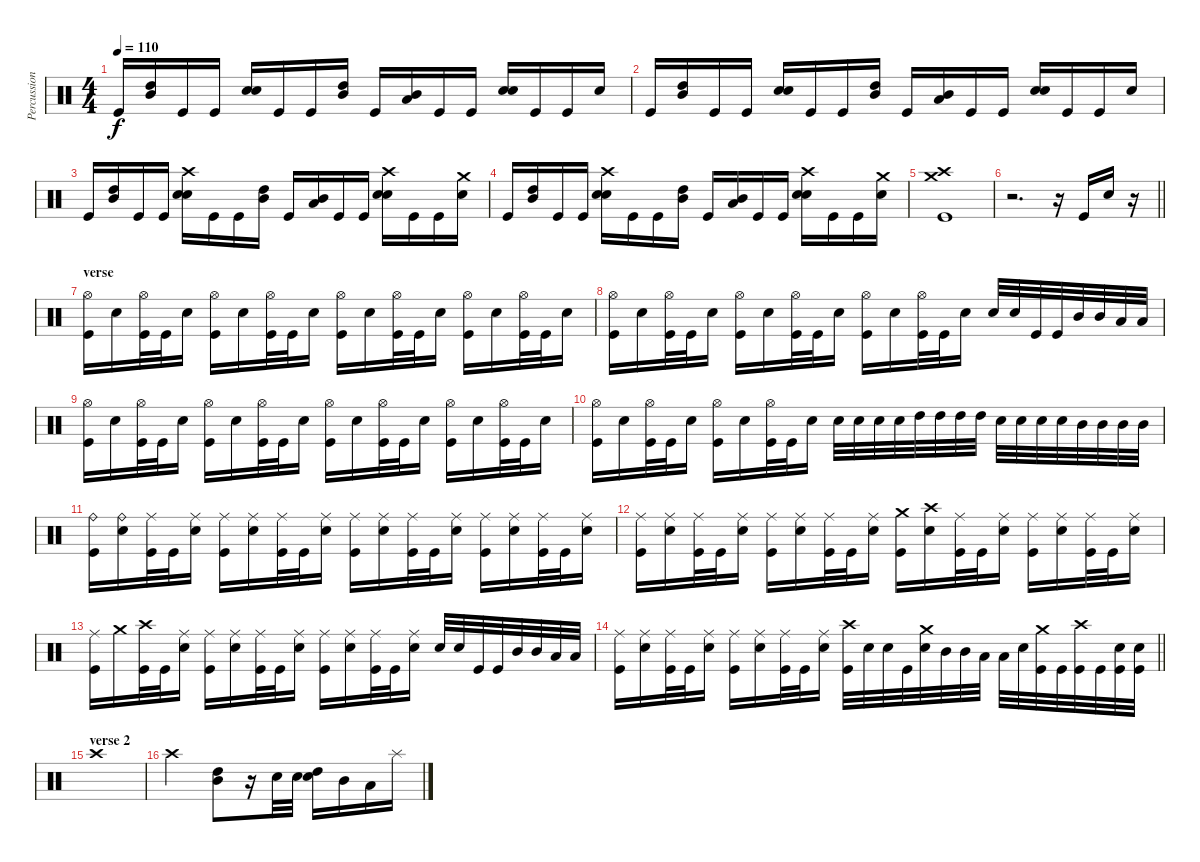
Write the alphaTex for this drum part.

\track ("Percussion" "Percussion") {instrument percussion}
\staff {score}
\articulation defaults
\ts (4 4)
\tempo 110
\clef neutral
\ks c "Kick (hit)".16{dy f}
("Mid Tom (hit)" "High Tom (hit)").16 "Kick (hit)".16 "Kick (hit)".16 ("Snare (hit) 2" "Snare (hit) 2").16 "Kick (hit)".16 "Kick (hit)".16 ("High Tom (hit)" "Mid Tom (hit)").16 "Kick (hit)".16 ("Mid Tom (hit)" "Low Tom (hit)").16 "Kick (hit)".16 "Kick (hit)".16 ("Snare (hit) 2" "Snare (hit) 2").16 "Kick (hit)".16 "Kick (hit)".16 "Snare (hit) 2".16 |
"Kick (hit)".16 ("Mid Tom (hit)" "High Tom (hit)").16 "Kick (hit)".16 "Kick (hit)".16 ("Snare (hit) 2" "Snare (hit) 2").16 "Kick (hit)".16 "Kick (hit)".16 ("High Tom (hit)" "Mid Tom (hit)").16 "Kick (hit)".16 ("Mid Tom (hit)" "Low Tom (hit)").16 "Kick (hit)".16 "Kick (hit)".16 ("Snare (hit) 2" "Snare (hit) 2").16 "Kick (hit)".16 "Kick (hit)".16 "Snare (hit) 2".16 |
"Kick (hit)".16 ("High Tom (hit)" "Mid Tom (hit)").16 "Kick (hit)".16 "Kick (hit)".16 ("Snare (hit) 2" "Snare (hit) 2" "Crash high (hit)").16 "Kick (hit)".16 "Kick (hit)".16 ("High Tom (hit)" "Mid Tom (hit)").16 "Kick (hit)".16 ("Mid Tom (hit)" "Low Tom (hit)").16 "Kick (hit)".16 "Kick (hit)".16 ("Snare (hit) 2" "Snare (hit) 2" "Crash high (hit)").16 "Kick (hit)".16 "Kick (hit)".16 ("Snare (hit) 2" "Crash medium (hit)").16 |
"Kick (hit)".16 ("High Tom (hit)" "Mid Tom (hit)").16 "Kick (hit)".16 "Kick (hit)".16 ("Snare (hit) 2" "Snare (hit) 2" "Crash high (hit)").16 "Kick (hit)".16 "Kick (hit)".16 ("High Tom (hit)" "Mid Tom (hit)").16 "Kick (hit)".16 ("Mid Tom (hit)" "Low Tom (hit)").16 "Kick (hit)".16 "Kick (hit)".16 ("Snare (hit) 2" "Snare (hit) 2" "Crash high (hit)").16 "Kick (hit)".16 "Kick (hit)".16 ("Snare (hit) 2" "Crash medium (hit)").16 |
("Crash high (hit)" "Crash medium (hit)" "Kick (hit)").1 |
\barLineRight lightlight
r.2{d} r.16 "Kick (hit)".16 "Snare (hit) 2".16 r.16 |
\section ("" "verse")
("Kick (hit)" "Hi-Hat (open)").16 "Snare (hit) 2".16 ("Hi-Hat (open)" "Kick (hit)").32 "Kick (hit)".32 "Snare (hit) 2".16 ("Kick (hit)" "Hi-Hat (open)").16 "Snare (hit) 2".16 ("Hi-Hat (open)" "Kick (hit)").32 "Kick (hit)".32 "Snare (hit) 2".16 ("Kick (hit)" "Hi-Hat (open)").16 "Snare (hit) 2".16 ("Hi-Hat (open)" "Kick (hit)").32 "Kick (hit)".32 "Snare (hit) 2".16 ("Kick (hit)" "Hi-Hat (open)").16 "Snare (hit) 2".16 ("Hi-Hat (open)" "Kick (hit)").32 "Kick (hit)".32 "Snare (hit) 2".16 |
("Kick (hit)" "Hi-Hat (open)").16 "Snare (hit) 2".16 ("Hi-Hat (open)" "Kick (hit)").32 "Kick (hit)".32 "Snare (hit) 2".16 ("Kick (hit)" "Hi-Hat (open)").16 "Snare (hit) 2".16 ("Hi-Hat (open)" "Kick (hit)").32 "Kick (hit)".32 "Snare (hit) 2".16 ("Kick (hit)" "Hi-Hat (open)").16 "Snare (hit) 2".16 ("Hi-Hat (open)" "Kick (hit)").32 "Kick (hit)".32 "Snare (hit) 2".16 "Snare (hit) 2".32 "Snare (hit) 2".32 "Kick (hit)".32 "Kick (hit)".32 "Mid Tom (hit)".32 "Mid Tom (hit)".32 "Low Tom (hit)".32 "Low Tom (hit)".32 |
("Kick (hit)" "Hi-Hat (open)").16 "Snare (hit) 2".16 ("Hi-Hat (open)" "Kick (hit)").32 "Kick (hit)".32 "Snare (hit) 2".16 ("Kick (hit)" "Hi-Hat (open)").16 "Snare (hit) 2".16 ("Hi-Hat (open)" "Kick (hit)").32 "Kick (hit)".32 "Snare (hit) 2".16 ("Kick (hit)" "Hi-Hat (open)").16 "Snare (hit) 2".16 ("Hi-Hat (open)" "Kick (hit)").32 "Kick (hit)".32 "Snare (hit) 2".16 ("Kick (hit)" "Hi-Hat (open)").16 "Snare (hit) 2".16 ("Hi-Hat (open)" "Kick (hit)").32 "Kick (hit)".32 "Snare (hit) 2".16 |
("Kick (hit)" "Hi-Hat (open)").16 "Snare (hit) 2".16 ("Hi-Hat (open)" "Kick (hit)").32 "Kick (hit)".32 "Snare (hit) 2".16 ("Kick (hit)" "Hi-Hat (open)").16 "Snare (hit) 2".16 ("Hi-Hat (open)" "Kick (hit)").32 "Kick (hit)".32 "Snare (hit) 2".16 "Snare (hit) 2".32 "Snare (hit) 2".32 "Snare (hit) 2".32 "Snare (hit) 2".32 "High Tom (hit)".32 "High Tom (hit)".32 "High Tom (hit)".32 "High Tom (hit)".32 "Snare (hit) 2".32 "Snare (hit) 2".32 "Snare (hit) 2".32 "Snare (hit) 2".32 "Mid Tom (hit)".32 "Mid Tom (hit)".32 "Mid Tom (hit)".32 "Mid Tom (hit)".32 |
("Ride (bell)" "Kick (hit)").16 ("Ride (bell)" "Snare (hit) 2").16 ("Kick (hit)" "Ride (middle)").32 "Kick (hit)".32 ("Snare (hit) 2" "Ride (middle)").16 ("Ride (middle)" "Kick (hit)").16 ("Snare (hit) 2" "Ride (middle)").16 ("Kick (hit)" "Ride (middle)").32 "Kick (hit)".32 ("Snare (hit) 2" "Ride (middle)").16 ("Ride (middle)" "Kick (hit)").16 ("Snare (hit) 2" "Ride (middle)").16 ("Kick (hit)" "Ride (middle)").32 "Kick (hit)".32 ("Snare (hit) 2" "Ride (middle)").16 ("Ride (middle)" "Kick (hit)").16 ("Snare (hit) 2" "Ride (middle)").16 ("Kick (hit)" "Ride (middle)").32 "Kick (hit)".32 ("Snare (hit) 2" "Ride (middle)").16 |
("Ride (middle)" "Kick (hit)").16 ("Snare (hit) 2" "Ride (middle)").16 ("Kick (hit)" "Ride (middle)").32 "Kick (hit)".32 ("Snare (hit) 2" "Ride (middle)").16 ("Ride (middle)" "Kick (hit)").16 ("Snare (hit) 2" "Ride (middle)").16 ("Kick (hit)" "Ride (middle)").32 "Kick (hit)".32 ("Snare (hit) 2" "Ride (middle)").16 ("Kick (hit)" "Crash medium (hit)").16 ("Snare (hit) 2" "Crash high (hit)").16 ("Kick (hit)" "Ride (middle)").32 "Kick (hit)".32 ("Snare (hit) 2" "Ride (middle)").16 ("Ride (middle)" "Kick (hit)").16 ("Snare (hit) 2" "Ride (middle)").16 ("Kick (hit)" "Ride (middle)").32 "Kick (hit)".32 ("Snare (hit) 2" "Ride (middle)").16 |
("Ride (middle)" "Kick (hit)").16 "Crash medium (hit)".16 ("Kick (hit)" "Crash high (hit)").32 "Kick (hit)".32 ("Snare (hit) 2" "Ride (middle)").16 ("Ride (middle)" "Kick (hit)").16 ("Snare (hit) 2" "Ride (middle)").16 ("Kick (hit)" "Ride (middle)").32 "Kick (hit)".32 ("Snare (hit) 2" "Ride (middle)").16 ("Ride (middle)" "Kick (hit)").16 ("Snare (hit) 2" "Ride (middle)").16 ("Kick (hit)" "Ride (middle)").32 "Kick (hit)".32 ("Snare (hit) 2" "Ride (middle)").16 "Snare (hit) 2".32 "Snare (hit) 2".32 "Kick (hit)".32 "Kick (hit)".32 "Mid Tom (hit)".32 "Mid Tom (hit)".32 "Low Tom (hit)".32 "Low Tom (hit)".32 |
\barLineRight lightlight
("Ride (middle)" "Kick (hit)").16 ("Snare (hit) 2" "Ride (middle)").16 ("Kick (hit)" "Ride (middle)").32 "Kick (hit)".32 ("Snare (hit) 2" "Ride (middle)").16 ("Ride (middle)" "Kick (hit)").16 ("Snare (hit) 2" "Ride (middle)").16 ("Kick (hit)" "Ride (middle)").32 "Kick (hit)".32 ("Snare (hit) 2" "Ride (middle)").16 ("Kick (hit)" "Crash high (hit)").32 "Snare (hit) 2".32 "Snare (hit) 2".32 "Kick (hit)".32 ("Snare (hit) 2" "Crash medium (hit)").32 "Mid Tom (hit)".32 "Mid Tom (hit)".32 "Low Tom (hit)".32 "Low Tom (hit)".32 "Snare (hit) 2".32 ("Kick (hit)" "Crash medium (hit)").32 "Kick (hit)".32 ("Crash high (hit)" "Kick (hit)").32 "Kick (hit)".32 ("Snare (hit) 2" "Kick (hit)").32 ("Snare (hit) 2" "Kick (hit)").32 |
\section ("" "verse 2")
"Crash high (hit)".1 |
"Crash high (hit)".2 ("Mid Tom (hit)" "High Tom (hit)").8 r.16 "Snare (hit) 2".32 "Snare (hit) 2".32 ("Snare (hit) 2" "High Tom (hit)").16 "Mid Tom (hit)".16 "Low Tom (hit)".16 "Splash (hit)".16
